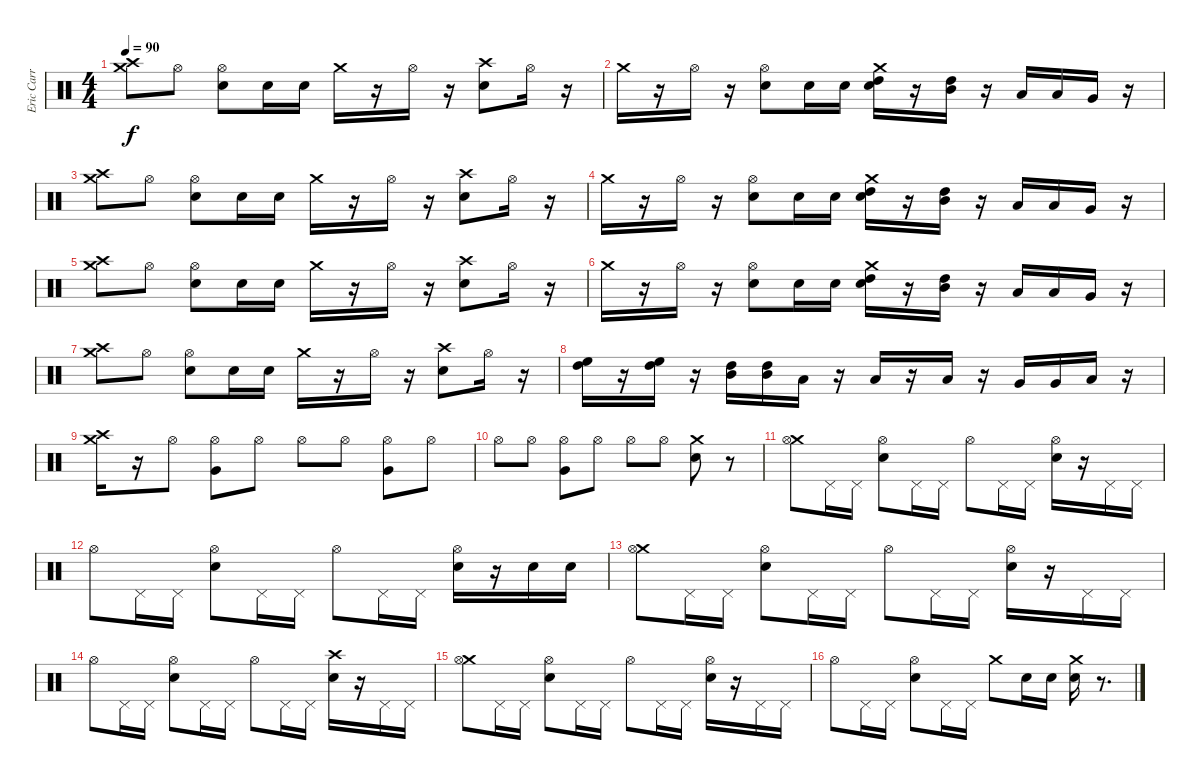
\track ("Eric Carr" "Eric Carr") {instrument percussion}
\staff {score}
\articulation defaults
\ts (4 4)
\tempo 90
\clef neutral
\ks c
("Crash medium (hit)" "Crash high (hit)").8{dy f} "Hi-Hat (open)".8 ("Hi-Hat (open)" "Electric Snare (hit)").8 "Electric Snare (hit)".16 "Electric Snare (hit)".16 "Crash medium (hit)".16 r.16 "Hi-Hat (open)".16 r.16 ("Crash high (hit)" "Electric Snare (hit)").8 "Hi-Hat (open)".16 r.16 |
"Crash medium (hit)".16 r.16 "Hi-Hat (open)".16 r.16 ("Hi-Hat (open)" "Electric Snare (hit)").8 "Electric Snare (hit)".16 "Electric Snare (hit)".16 ("Crash medium (hit)" "High Tom (hit)" "Electric Snare (hit)").16 r.16 ("High Tom (hit)" "Mid Tom (hit)").16 r.16 "Low Tom (hit)".16 "Low Tom (hit)".16 "Very Low Tom (hit)".16 r.16 |
("Crash medium (hit)" "Crash high (hit)").8 "Hi-Hat (open)".8 ("Hi-Hat (open)" "Electric Snare (hit)").8 "Electric Snare (hit)".16 "Electric Snare (hit)".16 "Crash medium (hit)".16 r.16 "Hi-Hat (open)".16 r.16 ("Crash high (hit)" "Electric Snare (hit)").8 "Hi-Hat (open)".16 r.16 |
"Crash medium (hit)".16 r.16 "Hi-Hat (open)".16 r.16 ("Hi-Hat (open)" "Electric Snare (hit)").8 "Electric Snare (hit)".16 "Electric Snare (hit)".16 ("Crash medium (hit)" "High Tom (hit)" "Electric Snare (hit)").16 r.16 ("High Tom (hit)" "Mid Tom (hit)").16 r.16 "Low Tom (hit)".16 "Low Tom (hit)".16 "Very Low Tom (hit)".16 r.16 |
("Crash medium (hit)" "Crash high (hit)").8 "Hi-Hat (open)".8 ("Hi-Hat (open)" "Electric Snare (hit)").8 "Electric Snare (hit)".16 "Electric Snare (hit)".16 "Crash medium (hit)".16 r.16 "Hi-Hat (open)".16 r.16 ("Crash high (hit)" "Electric Snare (hit)").8 "Hi-Hat (open)".16 r.16 |
"Crash medium (hit)".16 r.16 "Hi-Hat (open)".16 r.16 ("Hi-Hat (open)" "Electric Snare (hit)").8 "Electric Snare (hit)".16 "Electric Snare (hit)".16 ("Crash medium (hit)" "High Tom (hit)" "Electric Snare (hit)").16 r.16 ("High Tom (hit)" "Mid Tom (hit)").16 r.16 "Low Tom (hit)".16 "Low Tom (hit)".16 "Very Low Tom (hit)".16 r.16 |
("Crash medium (hit)" "Crash high (hit)").8 "Hi-Hat (open)".8 ("Hi-Hat (open)" "Electric Snare (hit)").8 "Electric Snare (hit)".16 "Electric Snare (hit)".16 "Crash medium (hit)".16 r.16 "Hi-Hat (open)".16 r.16 ("Crash high (hit)" "Electric Snare (hit)").8 "Hi-Hat (open)".16 r.16 |
("High Floor Tom (hit)" "High Tom (hit)").16 r.16 ("High Floor Tom (hit)" "High Tom (hit)").16 r.16 ("High Tom (hit)" "Mid Tom (hit)").16 ("High Tom (hit)" "Mid Tom (hit)").16 "Low Tom (hit)".16 r.16 "Low Tom (hit)".16 r.16 "Low Tom (hit)".16 r.16 "Very Low Tom (hit)".16 "Very Low Tom (hit)".16 "Low Floor Tom (hit)".16 r.16 |
("Crash medium (hit)" "Crash high (hit)").16 r.16 "Hi-Hat (open)".8 ("Hi-Hat (open)" "Very Low Tom (hit)").8 "Hi-Hat (open)".8 "Hi-Hat (open)".8 "Hi-Hat (open)".8 ("Hi-Hat (open)" "Very Low Tom (hit)").8 "Hi-Hat (open)".8 |
"Hi-Hat (open)".8 "Hi-Hat (open)".8 ("Hi-Hat (open)" "Very Low Tom (hit)").8 "Hi-Hat (open)".8 "Hi-Hat (open)".8 "Hi-Hat (open)".8 ("Crash medium (hit)" "Electric Snare (hit)").8 r.8 |
("Crash medium (hit)" "Hi-Hat (open)").8 "Pedal Hi-Hat (hit)".16 "Pedal Hi-Hat (hit)".16 ("Hi-Hat (open)" "Electric Snare (hit)").8 "Pedal Hi-Hat (hit)".16 "Pedal Hi-Hat (hit)".16 "Hi-Hat (open)".8 "Pedal Hi-Hat (hit)".16 "Pedal Hi-Hat (hit)".16 ("Hi-Hat (open)" "Electric Snare (hit)").16 r.16 "Pedal Hi-Hat (hit)".16 "Pedal Hi-Hat (hit)".16 |
"Hi-Hat (open)".8 "Pedal Hi-Hat (hit)".16 "Pedal Hi-Hat (hit)".16 ("Hi-Hat (open)" "Electric Snare (hit)").8 "Pedal Hi-Hat (hit)".16 "Pedal Hi-Hat (hit)".16 "Hi-Hat (open)".8 "Pedal Hi-Hat (hit)".16 "Pedal Hi-Hat (hit)".16 ("Hi-Hat (open)" "Electric Snare (hit)").16 r.16 "Electric Snare (hit)".16 "Electric Snare (hit)".16 |
("Crash medium (hit)" "Hi-Hat (open)").8 "Pedal Hi-Hat (hit)".16 "Pedal Hi-Hat (hit)".16 ("Hi-Hat (open)" "Electric Snare (hit)").8 "Pedal Hi-Hat (hit)".16 "Pedal Hi-Hat (hit)".16 "Hi-Hat (open)".8 "Pedal Hi-Hat (hit)".16 "Pedal Hi-Hat (hit)".16 ("Hi-Hat (open)" "Electric Snare (hit)").16 r.16 "Pedal Hi-Hat (hit)".16 "Pedal Hi-Hat (hit)".16 |
"Hi-Hat (open)".8 "Pedal Hi-Hat (hit)".16 "Pedal Hi-Hat (hit)".16 ("Hi-Hat (open)" "Electric Snare (hit)").8 "Pedal Hi-Hat (hit)".16 "Pedal Hi-Hat (hit)".16 "Hi-Hat (open)".8 "Pedal Hi-Hat (hit)".16 "Pedal Hi-Hat (hit)".16 ("Crash high (hit)" "Electric Snare (hit)").16 r.16 "Pedal Hi-Hat (hit)".16 "Pedal Hi-Hat (hit)".16 |
("Crash medium (hit)" "Hi-Hat (open)").8 "Pedal Hi-Hat (hit)".16 "Pedal Hi-Hat (hit)".16 ("Hi-Hat (open)" "Electric Snare (hit)").8 "Pedal Hi-Hat (hit)".16 "Pedal Hi-Hat (hit)".16 "Hi-Hat (open)".8 "Pedal Hi-Hat (hit)".16 "Pedal Hi-Hat (hit)".16 ("Hi-Hat (open)" "Electric Snare (hit)").16 r.16 "Pedal Hi-Hat (hit)".16 "Pedal Hi-Hat (hit)".16 |
"Hi-Hat (open)".8 "Pedal Hi-Hat (hit)".16 "Pedal Hi-Hat (hit)".16 ("Hi-Hat (open)" "Electric Snare (hit)").8 "Pedal Hi-Hat (hit)".16 "Pedal Hi-Hat (hit)".16 "Crash medium (hit)".8 "Electric Snare (hit)".16 "Electric Snare (hit)".16 ("Crash medium (hit)" "Electric Snare (hit)").16 r.8{d}
